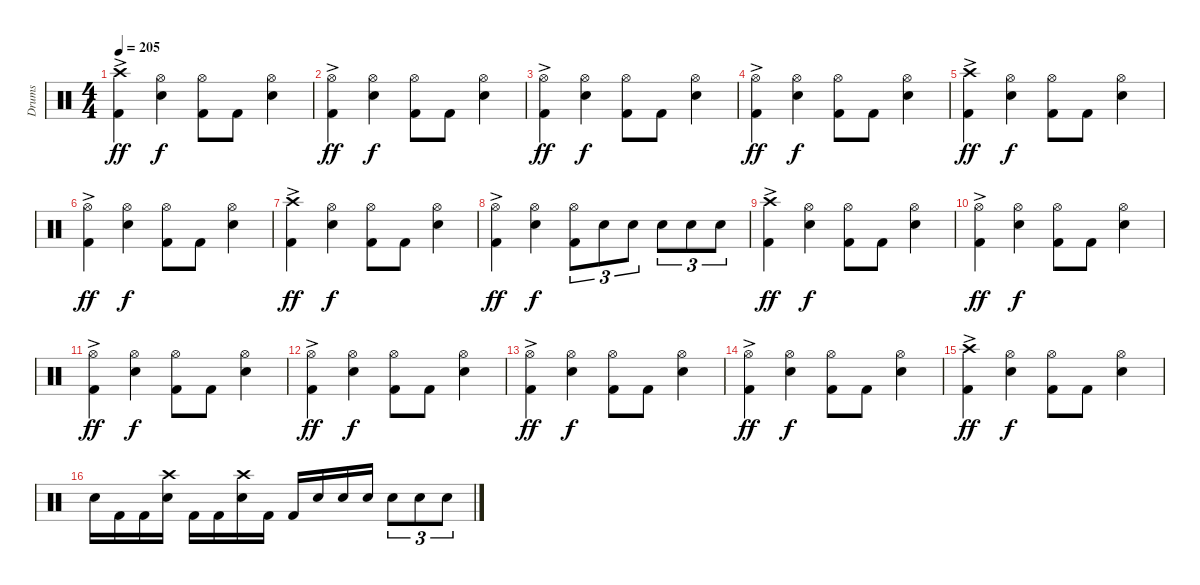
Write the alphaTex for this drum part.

\track ("Drums" "Drums") {instrument percussion}
\staff {score}
\articulation defaults
\ts (4 4)
\tempo 205
\clef neutral
\ks c
("Crash high (hit)"{ac} "Kick (hit) 2").4{dy ff} ("Hi-Hat (open)" "Electric Snare (hit)").4{dy f} ("Hi-Hat (open)" "Kick (hit) 2").8 "Kick (hit) 2".8 ("Hi-Hat (open)" "Electric Snare (hit)").4 |
("Hi-Hat (open)"{ac} "Kick (hit) 2").4{dy ff} ("Hi-Hat (open)" "Electric Snare (hit)").4{dy f} ("Hi-Hat (open)" "Kick (hit) 2").8 "Kick (hit) 2".8 ("Hi-Hat (open)" "Electric Snare (hit)").4 |
("Hi-Hat (open)"{ac} "Kick (hit) 2").4{dy ff} ("Hi-Hat (open)" "Electric Snare (hit)").4{dy f} ("Hi-Hat (open)" "Kick (hit) 2").8 "Kick (hit) 2".8 ("Hi-Hat (open)" "Electric Snare (hit)").4 |
("Hi-Hat (open)"{ac} "Kick (hit) 2").4{dy ff} ("Hi-Hat (open)" "Electric Snare (hit)").4{dy f} ("Hi-Hat (open)" "Kick (hit) 2").8 "Kick (hit) 2".8 ("Hi-Hat (open)" "Electric Snare (hit)").4 |
("Crash high (hit)"{ac} "Kick (hit) 2").4{dy ff} ("Hi-Hat (open)" "Electric Snare (hit)").4{dy f} ("Hi-Hat (open)" "Kick (hit) 2").8 "Kick (hit) 2".8 ("Hi-Hat (open)" "Electric Snare (hit)").4 |
("Hi-Hat (open)"{ac} "Kick (hit) 2").4{dy ff} ("Hi-Hat (open)" "Electric Snare (hit)").4{dy f} ("Hi-Hat (open)" "Kick (hit) 2").8 "Kick (hit) 2".8 ("Hi-Hat (open)" "Electric Snare (hit)").4 |
("Crash high (hit)"{ac} "Kick (hit) 2").4{dy ff} ("Hi-Hat (open)" "Electric Snare (hit)").4{dy f} ("Hi-Hat (open)" "Kick (hit) 2").8 "Kick (hit) 2".8 ("Hi-Hat (open)" "Electric Snare (hit)").4 |
("Hi-Hat (open)"{ac} "Kick (hit) 2").4{dy ff} ("Hi-Hat (open)" "Electric Snare (hit)").4{dy f} ("Hi-Hat (open)" "Kick (hit) 2").8{tu (3 2)} "Electric Snare (hit)".8{tu (3 2)} "Electric Snare (hit)".8{tu (3 2)} "Electric Snare (hit)".8{tu (3 2)} "Electric Snare (hit)".8{tu (3 2)} "Electric Snare (hit)".8{tu (3 2)} |
("Crash high (hit)"{ac} "Kick (hit) 2").4{dy ff} ("Hi-Hat (open)" "Electric Snare (hit)").4{dy f} ("Hi-Hat (open)" "Kick (hit) 2").8 "Kick (hit) 2".8 ("Hi-Hat (open)" "Electric Snare (hit)").4 |
("Hi-Hat (open)"{ac} "Kick (hit) 2").4{dy ff} ("Hi-Hat (open)" "Electric Snare (hit)").4{dy f} ("Hi-Hat (open)" "Kick (hit) 2").8 "Kick (hit) 2".8 ("Hi-Hat (open)" "Electric Snare (hit)").4 |
("Hi-Hat (open)"{ac} "Kick (hit) 2").4{dy ff} ("Hi-Hat (open)" "Electric Snare (hit)").4{dy f} ("Hi-Hat (open)" "Kick (hit) 2").8 "Kick (hit) 2".8 ("Hi-Hat (open)" "Electric Snare (hit)").4 |
("Hi-Hat (open)"{ac} "Kick (hit) 2").4{dy ff} ("Hi-Hat (open)" "Electric Snare (hit)").4{dy f} ("Hi-Hat (open)" "Kick (hit) 2").8 "Kick (hit) 2".8 ("Hi-Hat (open)" "Electric Snare (hit)").4 |
("Hi-Hat (open)"{ac} "Kick (hit) 2").4{dy ff} ("Hi-Hat (open)" "Electric Snare (hit)").4{dy f} ("Hi-Hat (open)" "Kick (hit) 2").8 "Kick (hit) 2".8 ("Hi-Hat (open)" "Electric Snare (hit)").4 |
("Hi-Hat (open)"{ac} "Kick (hit) 2").4{dy ff} ("Hi-Hat (open)" "Electric Snare (hit)").4{dy f} ("Hi-Hat (open)" "Kick (hit) 2").8 "Kick (hit) 2".8 ("Hi-Hat (open)" "Electric Snare (hit)").4 |
("Crash high (hit)"{ac} "Kick (hit) 2").4{dy ff} ("Hi-Hat (open)" "Electric Snare (hit)").4{dy f} ("Hi-Hat (open)" "Kick (hit) 2").8 "Kick (hit) 2".8 ("Hi-Hat (open)" "Electric Snare (hit)").4 |
"Snare (hit) 2".16 "Kick (hit) 2".16 "Kick (hit) 2".16 ("Crash high (hit)" "Electric Snare (hit)").16 "Kick (hit) 2".16 "Kick (hit) 2".16 ("Crash high (hit)" "Electric Snare (hit)").16 "Kick (hit) 2".16 "Kick (hit) 2".16 "Electric Snare (hit)".16 "Electric Snare (hit)".16 "Electric Snare (hit)".16 "Electric Snare (hit)".8{tu (3 2)} "Electric Snare (hit)".8{tu (3 2)} "Electric Snare (hit)".8{tu (3 2)}
